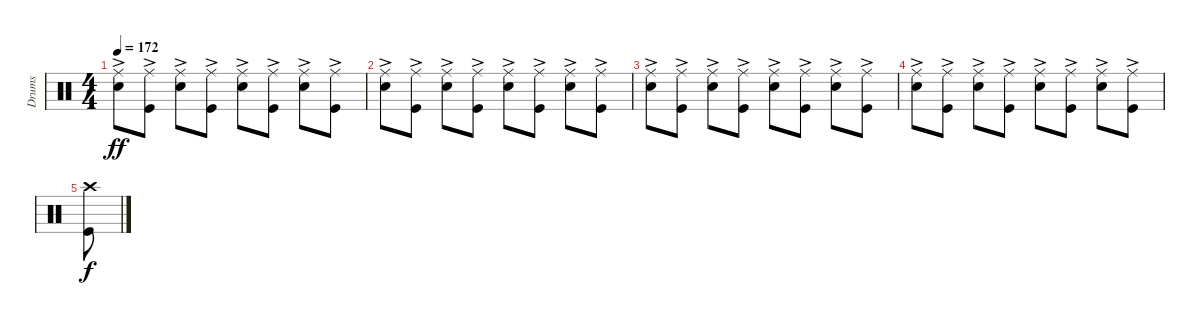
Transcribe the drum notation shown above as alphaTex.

\track ("Drums" "Drums") {instrument percussion}
\staff {score}
\articulation defaults
\ts (4 4)
\tempo 172
\clef neutral
\ks c
("Ride (middle)"{ac} "Snare (hit) 2").8{dy ff} ("Ride (middle)"{ac} "Kick (hit)").8 ("Ride (middle)"{ac} "Snare (hit) 2").8 ("Ride (middle)"{ac} "Kick (hit)").8 ("Ride (middle)"{ac} "Snare (hit) 2").8 ("Ride (middle)"{ac} "Kick (hit)").8 ("Ride (middle)"{ac} "Snare (hit) 2").8 ("Ride (middle)"{ac} "Kick (hit)").8 |
("Ride (middle)"{ac} "Snare (hit) 2").8 ("Ride (middle)"{ac} "Kick (hit)").8 ("Ride (middle)"{ac} "Snare (hit) 2").8 ("Ride (middle)"{ac} "Kick (hit)").8 ("Ride (middle)"{ac} "Snare (hit) 2").8 ("Ride (middle)"{ac} "Kick (hit)").8 ("Ride (middle)"{ac} "Snare (hit) 2").8 ("Ride (middle)"{ac} "Kick (hit)").8 |
("Ride (middle)"{ac} "Snare (hit) 2").8 ("Ride (middle)"{ac} "Kick (hit)").8 ("Ride (middle)"{ac} "Snare (hit) 2").8 ("Ride (middle)"{ac} "Kick (hit)").8 ("Ride (middle)"{ac} "Snare (hit) 2").8 ("Ride (middle)"{ac} "Kick (hit)").8 ("Ride (middle)"{ac} "Snare (hit) 2").8 ("Ride (middle)"{ac} "Kick (hit)").8 |
("Ride (middle)"{ac} "Snare (hit) 2").8 ("Ride (middle)"{ac} "Kick (hit)").8 ("Ride (middle)"{ac} "Snare (hit) 2").8 ("Ride (middle)"{ac} "Kick (hit)").8 ("Ride (middle)"{ac} "Snare (hit) 2").8 ("Ride (middle)"{ac} "Kick (hit)").8 ("Ride (middle)"{ac} "Snare (hit) 2").8 ("Ride (middle)"{ac} "Kick (hit)").8 |
("Crash high (hit)" "Kick (hit)").8{dy f}
